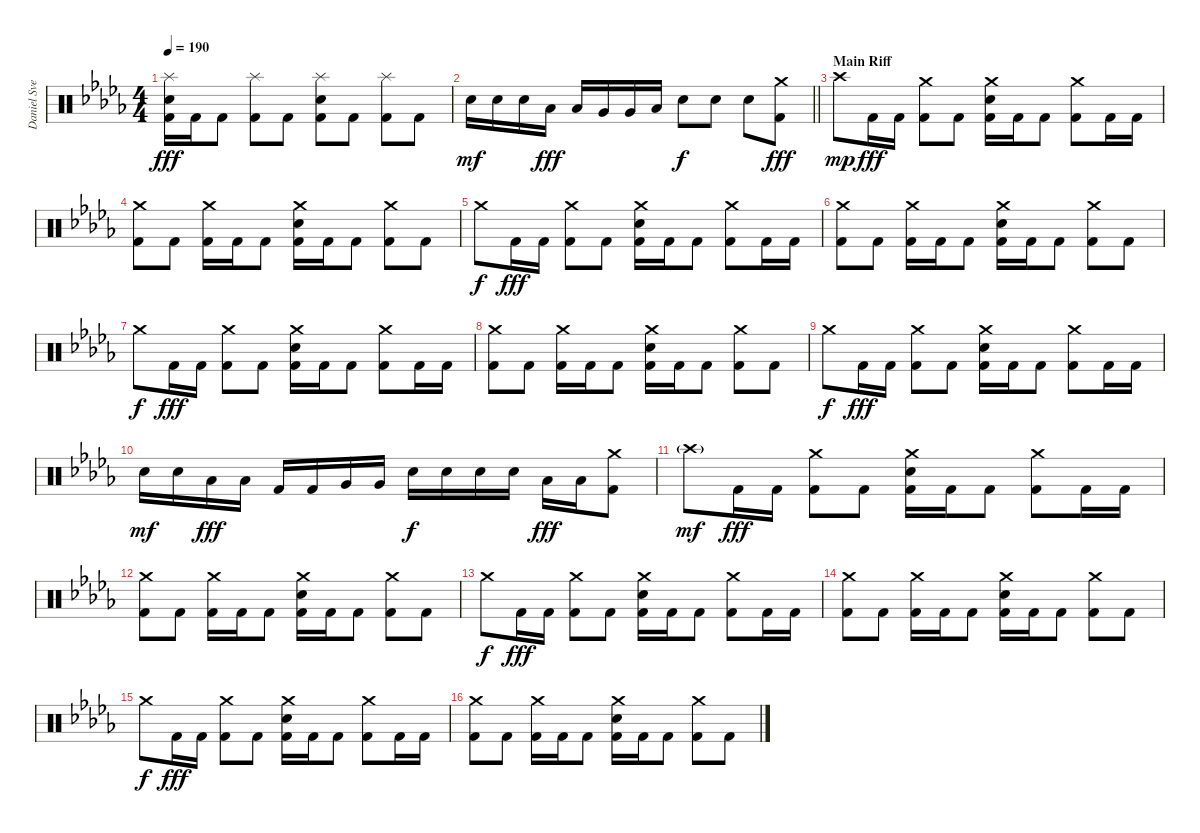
\track ("Daniel Svensson" "Daniel Sve") {instrument percussion}
\staff {score}
\articulation defaults
\ts (4 4)
\tempo 190
\clef neutral
\ks db
("Splash (hit)" "Electric Snare (hit)" "Kick (hit) 2").16{dy fff} "Kick (hit) 2".16 "Kick (hit) 2".8 ("Splash (hit)" "Kick (hit) 2").8 "Kick (hit) 2".8 ("Splash (hit)" "Electric Snare (hit)" "Kick (hit) 2").8 "Kick (hit) 2".8 ("Splash (hit)" "Kick (hit) 2").8 "Kick (hit) 2".8 |
\barLineRight lightlight "Electric Snare (hit)".16{dy mf} "Electric Snare (hit)".16 "Electric Snare (hit)".16 "Low Tom (hit)".16{dy fff} "Low Tom (hit)".16 "Very Low Tom (hit)".16 "Very Low Tom (hit)".16 "Low Floor Tom (hit)".16 "Electric Snare (hit)".8{dy f} "Electric Snare (hit)".8 "Electric Snare (hit)".8
("Crash medium (hit)" "Kick (hit) 2").8{dy fff} |
\section ("" "Main Riff")
"Crash high (hit)".8{dy mp} "Kick (hit) 2".16{dy fff} "Kick (hit) 2".16 ("Crash medium (hit)" "Kick (hit) 2").8 "Kick (hit) 2".8 ("Crash medium (hit)" "Electric Snare (hit)" "Kick (hit) 2").16 "Kick (hit) 2".16 "Kick (hit) 2".8 ("Crash medium (hit)" "Kick (hit) 2").8 "Kick (hit) 2".16 "Kick (hit) 2".16 |
("Crash medium (hit)" "Kick (hit) 2").8 "Kick (hit) 2".8 ("Crash medium (hit)" "Kick (hit) 2").16 "Kick (hit) 2".16 "Kick (hit) 2".8 ("Crash medium (hit)" "Electric Snare (hit)" "Kick (hit) 2").16 "Kick (hit) 2".16 "Kick (hit) 2".8 ("Crash medium (hit)" "Kick (hit) 2").8 "Kick (hit) 2".8 |
"Crash medium (hit)".8{dy f} "Kick (hit) 2".16{dy fff} "Kick (hit) 2".16 ("Crash medium (hit)" "Kick (hit) 2").8 "Kick (hit) 2".8 ("Crash medium (hit)" "Electric Snare (hit)" "Kick (hit) 2").16 "Kick (hit) 2".16 "Kick (hit) 2".8 ("Crash medium (hit)" "Kick (hit) 2").8 "Kick (hit) 2".16 "Kick (hit) 2".16 |
("Crash medium (hit)" "Kick (hit) 2").8 "Kick (hit) 2".8 ("Crash medium (hit)" "Kick (hit) 2").16 "Kick (hit) 2".16 "Kick (hit) 2".8 ("Crash medium (hit)" "Electric Snare (hit)" "Kick (hit) 2").16 "Kick (hit) 2".16 "Kick (hit) 2".8 ("Crash medium (hit)" "Kick (hit) 2").8 "Kick (hit) 2".8 |
"Crash medium (hit)".8{dy f} "Kick (hit) 2".16{dy fff} "Kick (hit) 2".16 ("Crash medium (hit)" "Kick (hit) 2").8 "Kick (hit) 2".8 ("Crash medium (hit)" "Electric Snare (hit)" "Kick (hit) 2").16 "Kick (hit) 2".16 "Kick (hit) 2".8 ("Crash medium (hit)" "Kick (hit) 2").8 "Kick (hit) 2".16 "Kick (hit) 2".16 |
("Crash medium (hit)" "Kick (hit) 2").8 "Kick (hit) 2".8 ("Crash medium (hit)" "Kick (hit) 2").16 "Kick (hit) 2".16 "Kick (hit) 2".8 ("Crash medium (hit)" "Electric Snare (hit)" "Kick (hit) 2").16 "Kick (hit) 2".16 "Kick (hit) 2".8 ("Crash medium (hit)" "Kick (hit) 2").8 "Kick (hit) 2".8 |
"Crash medium (hit)".8{dy f} "Kick (hit) 2".16{dy fff} "Kick (hit) 2".16 ("Crash medium (hit)" "Kick (hit) 2").8 "Kick (hit) 2".8 ("Crash medium (hit)" "Electric Snare (hit)" "Kick (hit) 2").16 "Kick (hit) 2".16 "Kick (hit) 2".8 ("Crash medium (hit)" "Kick (hit) 2").8 "Kick (hit) 2".16 "Kick (hit) 2".16 |
"Electric Snare (hit)".16{dy mf} "Electric Snare (hit)".16 "Low Tom (hit)".16{dy fff} "Low Tom (hit)".16 "Kick (hit) 2".16 "Kick (hit) 2".16 "Very Low Tom (hit)".16 "Very Low Tom (hit)".16 "Electric Snare (hit)".16{dy f} "Electric Snare (hit)".16 "Electric Snare (hit)".16 "Electric Snare (hit)".16 "Low Tom (hit)".16{dy fff} "Low Tom (hit)".16 ("Crash medium (hit)" "Kick (hit) 2").8 |
"Crash high (hit)"{g}.8{dy mf} "Kick (hit) 2".16{dy fff} "Kick (hit) 2".16 ("Crash medium (hit)" "Kick (hit) 2").8 "Kick (hit) 2".8 ("Crash medium (hit)" "Electric Snare (hit)" "Kick (hit) 2").16 "Kick (hit) 2".16 "Kick (hit) 2".8 ("Crash medium (hit)" "Kick (hit) 2").8 "Kick (hit) 2".16 "Kick (hit) 2".16 |
("Crash medium (hit)" "Kick (hit) 2").8 "Kick (hit) 2".8 ("Crash medium (hit)" "Kick (hit) 2").16 "Kick (hit) 2".16 "Kick (hit) 2".8 ("Crash medium (hit)" "Electric Snare (hit)" "Kick (hit) 2").16 "Kick (hit) 2".16 "Kick (hit) 2".8 ("Crash medium (hit)" "Kick (hit) 2").8 "Kick (hit) 2".8 |
"Crash medium (hit)".8{dy f} "Kick (hit) 2".16{dy fff} "Kick (hit) 2".16 ("Crash medium (hit)" "Kick (hit) 2").8 "Kick (hit) 2".8 ("Crash medium (hit)" "Electric Snare (hit)" "Kick (hit) 2").16 "Kick (hit) 2".16 "Kick (hit) 2".8 ("Crash medium (hit)" "Kick (hit) 2").8 "Kick (hit) 2".16 "Kick (hit) 2".16 |
("Crash medium (hit)" "Kick (hit) 2").8 "Kick (hit) 2".8 ("Crash medium (hit)" "Kick (hit) 2").16 "Kick (hit) 2".16 "Kick (hit) 2".8 ("Crash medium (hit)" "Electric Snare (hit)" "Kick (hit) 2").16 "Kick (hit) 2".16 "Kick (hit) 2".8 ("Crash medium (hit)" "Kick (hit) 2").8 "Kick (hit) 2".8 |
"Crash medium (hit)".8{dy f} "Kick (hit) 2".16{dy fff} "Kick (hit) 2".16 ("Crash medium (hit)" "Kick (hit) 2").8 "Kick (hit) 2".8 ("Crash medium (hit)" "Electric Snare (hit)" "Kick (hit) 2").16 "Kick (hit) 2".16 "Kick (hit) 2".8 ("Crash medium (hit)" "Kick (hit) 2").8 "Kick (hit) 2".16 "Kick (hit) 2".16 |
("Crash medium (hit)" "Kick (hit) 2").8 "Kick (hit) 2".8 ("Crash medium (hit)" "Kick (hit) 2").16 "Kick (hit) 2".16 "Kick (hit) 2".8 ("Crash medium (hit)" "Electric Snare (hit)" "Kick (hit) 2").16 "Kick (hit) 2".16 "Kick (hit) 2".8 ("Crash medium (hit)" "Kick (hit) 2").8 "Kick (hit) 2".8
